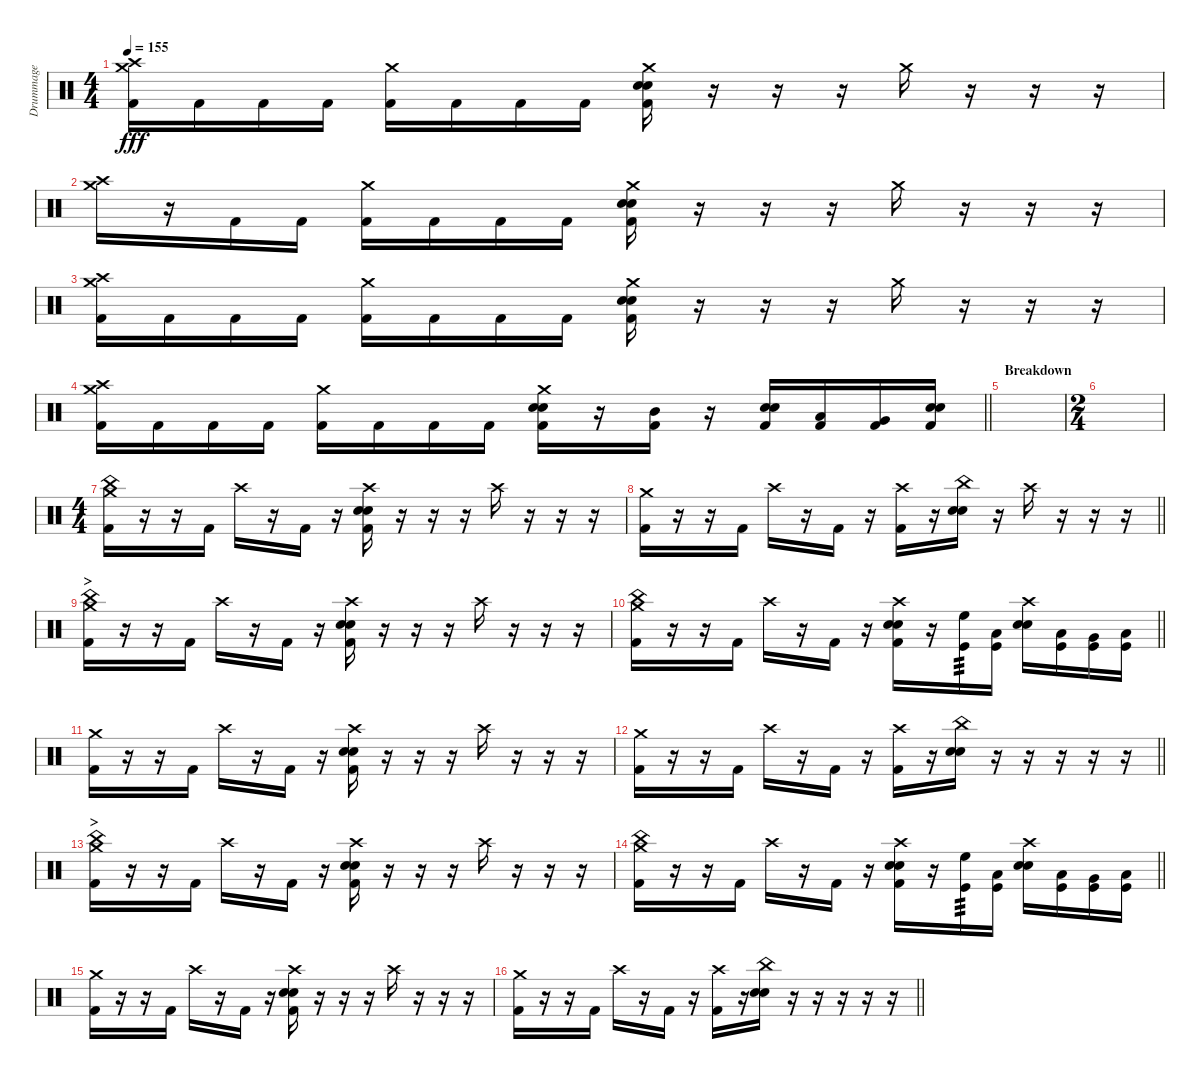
\track ("Drummage" "Drummage") {instrument percussion}
\staff {score}
\articulation defaults
\ts (4 4)
\tempo 155
\clef neutral
\ks c
("Crash high (hit)" "Crash medium (hit)" "Kick (hit) 2").16{dy fff} "Kick (hit) 2".16 "Kick (hit) 2".16 "Kick (hit) 2".16 ("Crash medium (hit)" "Kick (hit) 2").16 "Kick (hit) 2".16 "Kick (hit) 2".16 "Kick (hit) 2".16 ("Crash medium (hit)" "Electric Snare (hit)" "Snare (hit) 2" "Kick (hit) 2").16 r.16 r.16 r.16 "Crash medium (hit)".16 r.16 r.16 r.16 |
("Crash high (hit)" "Crash medium (hit)").16 r.16 "Kick (hit) 2".16 "Kick (hit) 2".16 ("Crash medium (hit)" "Kick (hit) 2").16 "Kick (hit) 2".16 "Kick (hit) 2".16 "Kick (hit) 2".16 ("Crash medium (hit)" "Electric Snare (hit)" "Snare (hit) 2" "Kick (hit) 2").16 r.16 r.16 r.16 "Crash medium (hit)".16 r.16 r.16 r.16 |
("Crash high (hit)" "Crash medium (hit)" "Kick (hit) 2").16 "Kick (hit) 2".16 "Kick (hit) 2".16 "Kick (hit) 2".16 ("Crash medium (hit)" "Kick (hit) 2").16 "Kick (hit) 2".16 "Kick (hit) 2".16 "Kick (hit) 2".16 ("Crash medium (hit)" "Electric Snare (hit)" "Snare (hit) 2" "Kick (hit) 2").16 r.16 r.16 r.16 "Crash medium (hit)".16 r.16 r.16 r.16 |
\barLineRight lightlight
("Crash high (hit)" "Crash medium (hit)" "Kick (hit) 2").16 "Kick (hit) 2".16 "Kick (hit) 2".16 "Kick (hit) 2".16 ("Crash medium (hit)" "Kick (hit) 2").16 "Kick (hit) 2".16 "Kick (hit) 2".16 "Kick (hit) 2".16 ("Crash medium (hit)" "Electric Snare (hit)" "Snare (hit) 2" "Kick (hit) 2").16 r.16 ("Mid Tom (hit)" "Kick (hit) 2").16 r.16 ("Snare (hit) 2" "Electric Snare (hit)" "Kick (hit) 2").16 ("Low Tom (hit)" "Kick (hit) 2").16 ("Very Low Tom (hit)" "Kick (hit) 2").16 ("Snare (hit) 2" "Electric Snare (hit)" "Kick (hit) 2").16 |
\section ("" "Breakdown")
|
\ts (2 4)
|
\ts (4 4)
("China (hit)" "Crash medium (hit)" "Kick (hit) 2").16 r.16 r.16 "Kick (hit) 2".16 "Crash high (hit)".16 r.16 "Kick (hit) 2".16 r.16 ("Crash high (hit)" "Snare (hit) 2" "Electric Snare (hit)" "Kick (hit) 2").16 r.16 r.16 r.16 "Crash high (hit)".16 r.16 r.16 r.16 |
\barLineRight lightlight
("Crash medium (hit)" "Kick (hit) 2").16 r.16 r.16 "Kick (hit) 2".16 "Crash high (hit)".16 r.16 "Kick (hit) 2".16 r.16 ("Crash high (hit)" "Kick (hit) 2").16 r.16 ("China (hit)" "Snare (hit) 2" "Electric Snare (hit)").16 r.16 "Crash high (hit)".16 r.16 r.16 r.16 |
\section ("" ">")
("China (hit)" "Crash medium (hit)" "Kick (hit) 2").16 r.16 r.16 "Kick (hit) 2".16 "Crash high (hit)".16 r.16 "Kick (hit) 2".16 r.16 ("Crash high (hit)" "Snare (hit) 2" "Electric Snare (hit)" "Kick (hit) 2").16 r.16 r.16 r.16 "Crash high (hit)".16 r.16 r.16 r.16 |
\barLineRight lightlight
("China (hit)" "Crash medium (hit)" "Kick (hit) 2").16 r.16 r.16 "Kick (hit) 2".16 "Crash high (hit)".16 r.16 "Kick (hit) 2".16 r.16 ("Crash high (hit)" "Snare (hit) 2" "Electric Snare (hit)" "Kick (hit) 2").16 r.16 ("High Floor Tom (hit)" "Kick (hit)").16{tp 3} ("Low Tom (hit)" "Kick (hit)").16 ("Crash high (hit)" "Electric Snare (hit)" "Snare (hit) 2").16 ("Low Tom (hit)" "Kick (hit)").16 ("Very Low Tom (hit)" "Kick (hit)").16 ("Low Floor Tom (hit)" "Kick (hit)").16 |
("Crash medium (hit)" "Kick (hit) 2").16 r.16 r.16 "Kick (hit) 2".16 "Crash high (hit)".16 r.16 "Kick (hit) 2".16 r.16 ("Crash high (hit)" "Snare (hit) 2" "Electric Snare (hit)" "Kick (hit) 2").16 r.16 r.16 r.16 "Crash high (hit)".16 r.16 r.16 r.16 |
\barLineRight lightlight
("Crash medium (hit)" "Kick (hit) 2").16 r.16 r.16 "Kick (hit) 2".16 "Crash high (hit)".16 r.16 "Kick (hit) 2".16 r.16 ("Crash high (hit)" "Kick (hit) 2").16 r.16 ("China (hit)" "Snare (hit) 2" "Electric Snare (hit)").16 r.16 r.16 r.16 r.16 r.16 |
\section ("" ">")
("China (hit)" "Crash medium (hit)" "Kick (hit) 2").16 r.16 r.16 "Kick (hit) 2".16 "Crash high (hit)".16 r.16 "Kick (hit) 2".16 r.16 ("Crash high (hit)" "Snare (hit) 2" "Electric Snare (hit)" "Kick (hit) 2").16 r.16 r.16 r.16 "Crash high (hit)".16 r.16 r.16 r.16 |
\barLineRight lightlight
("China (hit)" "Crash medium (hit)" "Kick (hit) 2").16 r.16 r.16 "Kick (hit) 2".16 "Crash high (hit)".16 r.16 "Kick (hit) 2".16 r.16 ("Crash high (hit)" "Snare (hit) 2" "Electric Snare (hit)" "Kick (hit) 2").16 r.16 ("High Floor Tom (hit)" "Kick (hit)").16{tp 3} ("Low Tom (hit)" "Kick (hit)").16 ("Crash high (hit)" "Electric Snare (hit)" "Snare (hit) 2").16 ("Low Tom (hit)" "Kick (hit)").16 ("Very Low Tom (hit)" "Kick (hit)").16 ("Low Floor Tom (hit)" "Kick (hit)").16 |
("Crash medium (hit)" "Kick (hit) 2").16 r.16 r.16 "Kick (hit) 2".16 "Crash high (hit)".16 r.16 "Kick (hit) 2".16 r.16 ("Crash high (hit)" "Snare (hit) 2" "Electric Snare (hit)" "Kick (hit) 2").16 r.16 r.16 r.16 "Crash high (hit)".16 r.16 r.16 r.16 |
\barLineRight lightlight
("Crash medium (hit)" "Kick (hit) 2").16 r.16 r.16 "Kick (hit) 2".16 "Crash high (hit)".16 r.16 "Kick (hit) 2".16 r.16 ("Crash high (hit)" "Kick (hit) 2").16 r.16 ("China (hit)" "Snare (hit) 2" "Electric Snare (hit)").16 r.16 r.16 r.16 r.16 r.16
